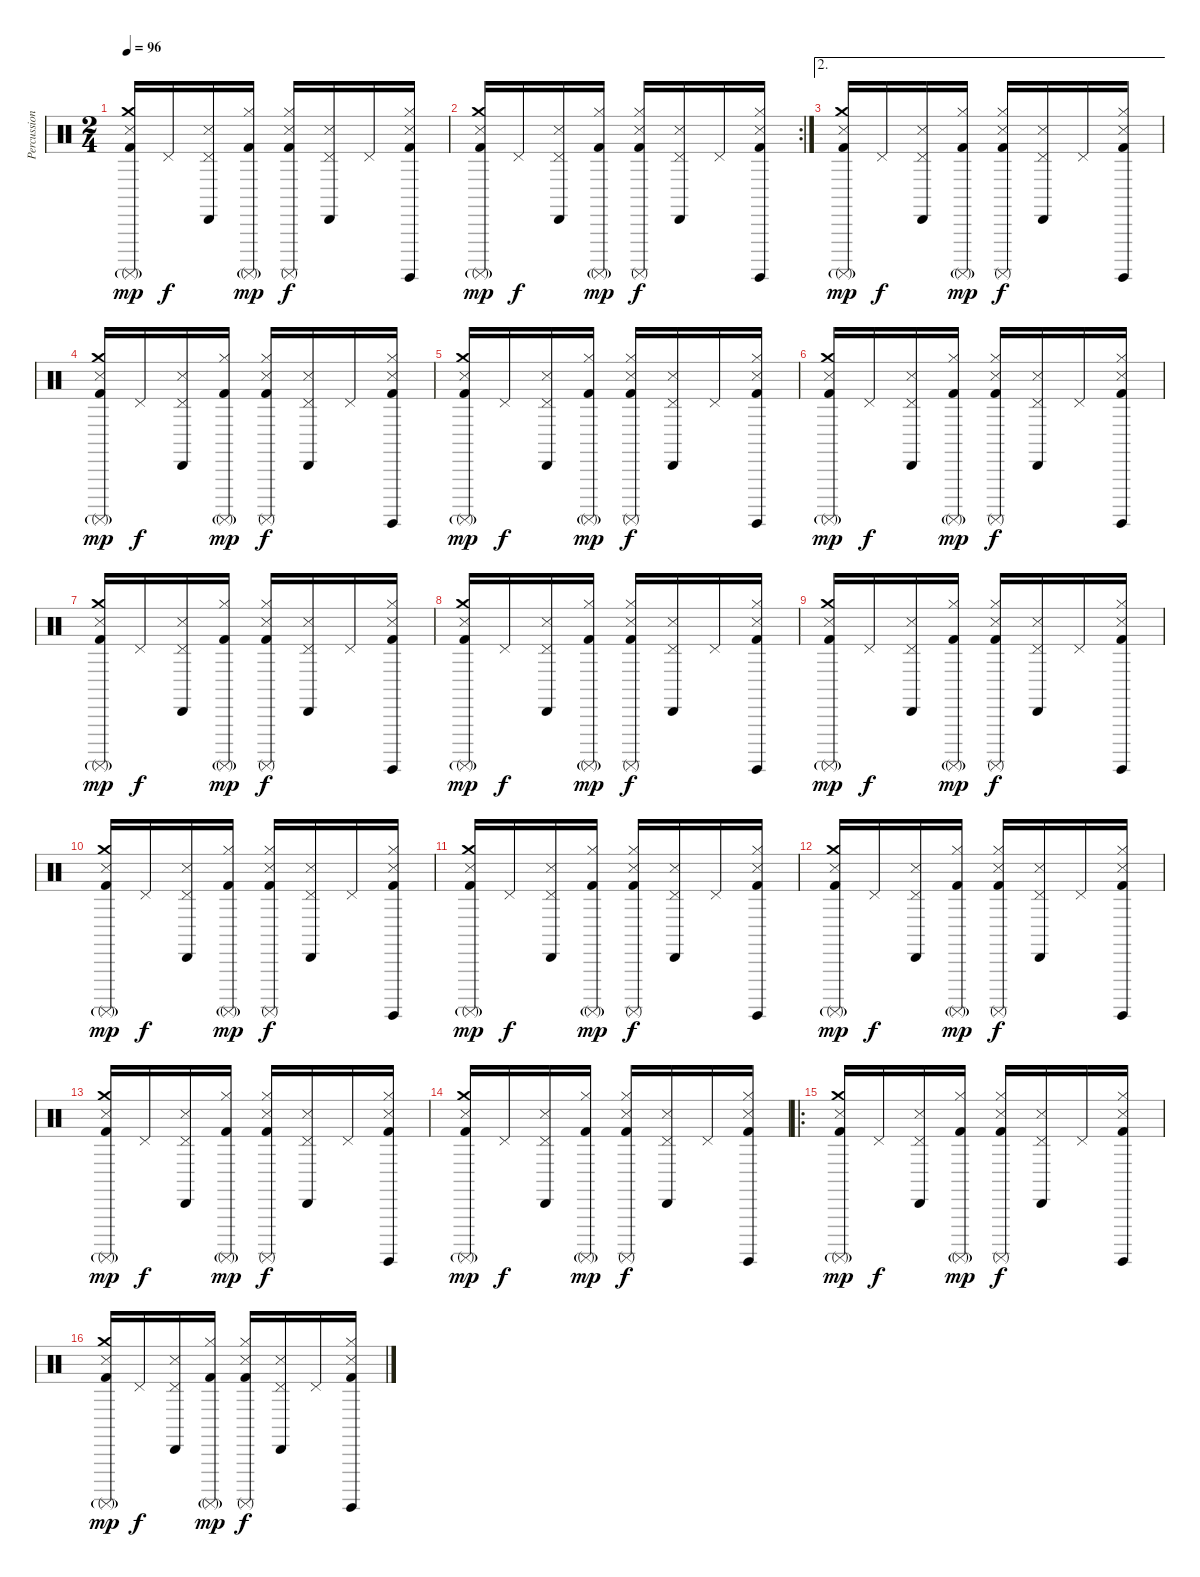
\track ("Percussion" "Percussion") {instrument percussion}
\staff {score}
\articulation defaults
\ts (2 4)
\tempo 96
\clef neutral
\ks c
("Crash medium (hit)" "Snare (side stick) 3" "Surdo (mute)"{g} "Kick (hit) 2").16{dy mp volume 12} "Pedal Hi-Hat (hit)".16{dy f} ("Pedal Hi-Hat (hit)" "Cabasa (hit)" "Snare (side stick) 3").16 ("Hi-Hat (closed)" "Surdo (mute)"{g} "Kick (hit) 2").16{dy mp} ("Hi-Hat (closed)" "Snare (side stick) 3" "Surdo (mute)" "Kick (hit) 2").16{dy f} ("Pedal Hi-Hat (hit)" "Cabasa (hit)" "Snare (side stick) 3").16 "Pedal Hi-Hat (hit)".16 ("Hi-Hat (closed)" "Snare (side stick) 3" "Surdo (hit)" "Kick (hit) 2").16 |
\rc 2
("Crash medium (hit)" "Snare (side stick) 3" "Surdo (mute)"{g} "Kick (hit) 2").16{dy mp volume 12} "Pedal Hi-Hat (hit)".16{dy f} ("Pedal Hi-Hat (hit)" "Cabasa (hit)" "Snare (side stick) 3").16 ("Hi-Hat (closed)" "Surdo (mute)"{g} "Kick (hit) 2").16{dy mp} ("Hi-Hat (closed)" "Snare (side stick) 3" "Surdo (mute)" "Kick (hit) 2").16{dy f} ("Pedal Hi-Hat (hit)" "Cabasa (hit)" "Snare (side stick) 3").16 "Pedal Hi-Hat (hit)".16 ("Hi-Hat (closed)" "Snare (side stick) 3" "Surdo (hit)" "Kick (hit) 2").16 |
\ae 2
("Crash medium (hit)" "Snare (side stick) 3" "Surdo (mute)"{g} "Kick (hit) 2").16{dy mp volume 12} "Pedal Hi-Hat (hit)".16{dy f} ("Pedal Hi-Hat (hit)" "Cabasa (hit)" "Snare (side stick) 3").16 ("Hi-Hat (closed)" "Surdo (mute)"{g} "Kick (hit) 2").16{dy mp} ("Hi-Hat (closed)" "Snare (side stick) 3" "Surdo (mute)" "Kick (hit) 2").16{dy f} ("Pedal Hi-Hat (hit)" "Cabasa (hit)" "Snare (side stick) 3").16 "Pedal Hi-Hat (hit)".16 ("Hi-Hat (closed)" "Snare (side stick) 3" "Surdo (hit)" "Kick (hit) 2").16 |
("Crash medium (hit)" "Snare (side stick) 3" "Surdo (mute)"{g} "Kick (hit) 2").16{dy mp volume 12} "Pedal Hi-Hat (hit)".16{dy f} ("Pedal Hi-Hat (hit)" "Cabasa (hit)" "Snare (side stick) 3").16 ("Hi-Hat (closed)" "Surdo (mute)"{g} "Kick (hit) 2").16{dy mp} ("Hi-Hat (closed)" "Snare (side stick) 3" "Surdo (mute)" "Kick (hit) 2").16{dy f} ("Pedal Hi-Hat (hit)" "Cabasa (hit)" "Snare (side stick) 3").16 "Pedal Hi-Hat (hit)".16 ("Hi-Hat (closed)" "Snare (side stick) 3" "Surdo (hit)" "Kick (hit) 2").16 |
("Crash medium (hit)" "Snare (side stick) 3" "Surdo (mute)"{g} "Kick (hit) 2").16{dy mp volume 12} "Pedal Hi-Hat (hit)".16{dy f} ("Pedal Hi-Hat (hit)" "Cabasa (hit)" "Snare (side stick) 3").16 ("Hi-Hat (closed)" "Surdo (mute)"{g} "Kick (hit) 2").16{dy mp} ("Hi-Hat (closed)" "Snare (side stick) 3" "Surdo (mute)" "Kick (hit) 2").16{dy f} ("Pedal Hi-Hat (hit)" "Cabasa (hit)" "Snare (side stick) 3").16 "Pedal Hi-Hat (hit)".16 ("Hi-Hat (closed)" "Snare (side stick) 3" "Surdo (hit)" "Kick (hit) 2").16 |
("Crash medium (hit)" "Snare (side stick) 3" "Surdo (mute)"{g} "Kick (hit) 2").16{dy mp volume 12} "Pedal Hi-Hat (hit)".16{dy f} ("Pedal Hi-Hat (hit)" "Cabasa (hit)" "Snare (side stick) 3").16 ("Hi-Hat (closed)" "Surdo (mute)"{g} "Kick (hit) 2").16{dy mp} ("Hi-Hat (closed)" "Snare (side stick) 3" "Surdo (mute)" "Kick (hit) 2").16{dy f} ("Pedal Hi-Hat (hit)" "Cabasa (hit)" "Snare (side stick) 3").16 "Pedal Hi-Hat (hit)".16 ("Hi-Hat (closed)" "Snare (side stick) 3" "Surdo (hit)" "Kick (hit) 2").16 |
("Crash medium (hit)" "Snare (side stick) 3" "Surdo (mute)"{g} "Kick (hit) 2").16{dy mp volume 12} "Pedal Hi-Hat (hit)".16{dy f} ("Pedal Hi-Hat (hit)" "Cabasa (hit)" "Snare (side stick) 3").16 ("Hi-Hat (closed)" "Surdo (mute)"{g} "Kick (hit) 2").16{dy mp} ("Hi-Hat (closed)" "Snare (side stick) 3" "Surdo (mute)" "Kick (hit) 2").16{dy f} ("Pedal Hi-Hat (hit)" "Cabasa (hit)" "Snare (side stick) 3").16 "Pedal Hi-Hat (hit)".16 ("Hi-Hat (closed)" "Snare (side stick) 3" "Surdo (hit)" "Kick (hit) 2").16 |
("Crash medium (hit)" "Snare (side stick) 3" "Surdo (mute)"{g} "Kick (hit) 2").16{dy mp volume 12} "Pedal Hi-Hat (hit)".16{dy f} ("Pedal Hi-Hat (hit)" "Cabasa (hit)" "Snare (side stick) 3").16 ("Hi-Hat (closed)" "Surdo (mute)"{g} "Kick (hit) 2").16{dy mp} ("Hi-Hat (closed)" "Snare (side stick) 3" "Surdo (mute)" "Kick (hit) 2").16{dy f} ("Pedal Hi-Hat (hit)" "Cabasa (hit)" "Snare (side stick) 3").16 "Pedal Hi-Hat (hit)".16 ("Hi-Hat (closed)" "Snare (side stick) 3" "Surdo (hit)" "Kick (hit) 2").16 |
("Crash medium (hit)" "Snare (side stick) 3" "Surdo (mute)"{g} "Kick (hit) 2").16{dy mp volume 12} "Pedal Hi-Hat (hit)".16{dy f} ("Pedal Hi-Hat (hit)" "Cabasa (hit)" "Snare (side stick) 3").16 ("Hi-Hat (closed)" "Surdo (mute)"{g} "Kick (hit) 2").16{dy mp} ("Hi-Hat (closed)" "Snare (side stick) 3" "Surdo (mute)" "Kick (hit) 2").16{dy f} ("Pedal Hi-Hat (hit)" "Cabasa (hit)" "Snare (side stick) 3").16 "Pedal Hi-Hat (hit)".16 ("Hi-Hat (closed)" "Snare (side stick) 3" "Surdo (hit)" "Kick (hit) 2").16 |
("Crash medium (hit)" "Snare (side stick) 3" "Surdo (mute)"{g} "Kick (hit) 2").16{dy mp volume 12} "Pedal Hi-Hat (hit)".16{dy f} ("Pedal Hi-Hat (hit)" "Cabasa (hit)" "Snare (side stick) 3").16 ("Hi-Hat (closed)" "Surdo (mute)"{g} "Kick (hit) 2").16{dy mp} ("Hi-Hat (closed)" "Snare (side stick) 3" "Surdo (mute)" "Kick (hit) 2").16{dy f} ("Pedal Hi-Hat (hit)" "Cabasa (hit)" "Snare (side stick) 3").16 "Pedal Hi-Hat (hit)".16 ("Hi-Hat (closed)" "Snare (side stick) 3" "Surdo (hit)" "Kick (hit) 2").16 |
("Crash medium (hit)" "Snare (side stick) 3" "Surdo (mute)"{g} "Kick (hit) 2").16{dy mp volume 12} "Pedal Hi-Hat (hit)".16{dy f} ("Pedal Hi-Hat (hit)" "Cabasa (hit)" "Snare (side stick) 3").16 ("Hi-Hat (closed)" "Surdo (mute)"{g} "Kick (hit) 2").16{dy mp} ("Hi-Hat (closed)" "Snare (side stick) 3" "Surdo (mute)" "Kick (hit) 2").16{dy f} ("Pedal Hi-Hat (hit)" "Cabasa (hit)" "Snare (side stick) 3").16 "Pedal Hi-Hat (hit)".16 ("Hi-Hat (closed)" "Snare (side stick) 3" "Surdo (hit)" "Kick (hit) 2").16 |
("Crash medium (hit)" "Snare (side stick) 3" "Surdo (mute)"{g} "Kick (hit) 2").16{dy mp volume 12} "Pedal Hi-Hat (hit)".16{dy f} ("Pedal Hi-Hat (hit)" "Cabasa (hit)" "Snare (side stick) 3").16 ("Hi-Hat (closed)" "Surdo (mute)"{g} "Kick (hit) 2").16{dy mp} ("Hi-Hat (closed)" "Snare (side stick) 3" "Surdo (mute)" "Kick (hit) 2").16{dy f} ("Pedal Hi-Hat (hit)" "Cabasa (hit)" "Snare (side stick) 3").16 "Pedal Hi-Hat (hit)".16 ("Hi-Hat (closed)" "Snare (side stick) 3" "Surdo (hit)" "Kick (hit) 2").16 |
("Crash medium (hit)" "Snare (side stick) 3" "Surdo (mute)"{g} "Kick (hit) 2").16{dy mp volume 12} "Pedal Hi-Hat (hit)".16{dy f} ("Pedal Hi-Hat (hit)" "Cabasa (hit)" "Snare (side stick) 3").16 ("Hi-Hat (closed)" "Surdo (mute)"{g} "Kick (hit) 2").16{dy mp} ("Hi-Hat (closed)" "Snare (side stick) 3" "Surdo (mute)" "Kick (hit) 2").16{dy f} ("Pedal Hi-Hat (hit)" "Cabasa (hit)" "Snare (side stick) 3").16 "Pedal Hi-Hat (hit)".16 ("Hi-Hat (closed)" "Snare (side stick) 3" "Surdo (hit)" "Kick (hit) 2").16 |
("Crash medium (hit)" "Snare (side stick) 3" "Surdo (mute)"{g} "Kick (hit) 2").16{dy mp volume 12} "Pedal Hi-Hat (hit)".16{dy f} ("Pedal Hi-Hat (hit)" "Cabasa (hit)" "Snare (side stick) 3").16 ("Hi-Hat (closed)" "Surdo (mute)"{g} "Kick (hit) 2").16{dy mp} ("Hi-Hat (closed)" "Snare (side stick) 3" "Surdo (mute)" "Kick (hit) 2").16{dy f} ("Pedal Hi-Hat (hit)" "Cabasa (hit)" "Snare (side stick) 3").16 "Pedal Hi-Hat (hit)".16 ("Hi-Hat (closed)" "Snare (side stick) 3" "Surdo (hit)" "Kick (hit) 2").16 |
\ro
("Crash medium (hit)" "Snare (side stick) 3" "Surdo (mute)"{g} "Kick (hit) 2").16{dy mp volume 12} "Pedal Hi-Hat (hit)".16{dy f} ("Pedal Hi-Hat (hit)" "Cabasa (hit)" "Snare (side stick) 3").16 ("Hi-Hat (closed)" "Surdo (mute)"{g} "Kick (hit) 2").16{dy mp} ("Hi-Hat (closed)" "Snare (side stick) 3" "Surdo (mute)" "Kick (hit) 2").16{dy f} ("Pedal Hi-Hat (hit)" "Cabasa (hit)" "Snare (side stick) 3").16 "Pedal Hi-Hat (hit)".16 ("Hi-Hat (closed)" "Snare (side stick) 3" "Surdo (hit)" "Kick (hit) 2").16 |
("Crash medium (hit)" "Snare (side stick) 3" "Surdo (mute)"{g} "Kick (hit) 2").16{dy mp volume 12} "Pedal Hi-Hat (hit)".16{dy f} ("Pedal Hi-Hat (hit)" "Cabasa (hit)" "Snare (side stick) 3").16 ("Hi-Hat (closed)" "Surdo (mute)"{g} "Kick (hit) 2").16{dy mp} ("Hi-Hat (closed)" "Snare (side stick) 3" "Surdo (mute)" "Kick (hit) 2").16{dy f} ("Pedal Hi-Hat (hit)" "Cabasa (hit)" "Snare (side stick) 3").16 "Pedal Hi-Hat (hit)".16 ("Hi-Hat (closed)" "Snare (side stick) 3" "Surdo (hit)" "Kick (hit) 2").16
